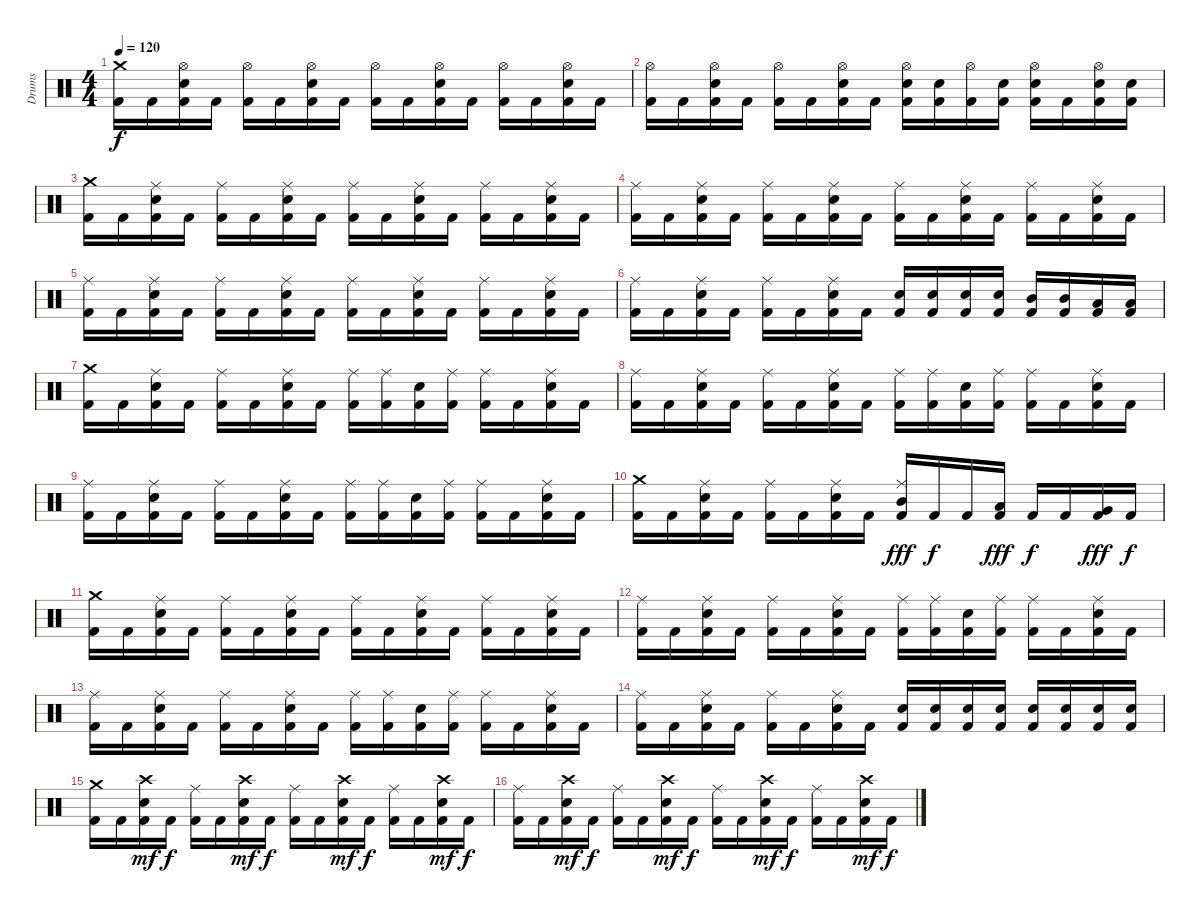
\track ("Drums" "Drums") {instrument percussion}
\staff {score}
\articulation defaults
\ts (4 4)
\tempo 120
\clef neutral
\ks c
("Kick (hit) 2" "Crash medium (hit)").16{dy f} "Kick (hit) 2".16 ("Kick (hit) 2" "Electric Snare (hit)" "Hi-Hat (open)").16 "Kick (hit) 2".16 ("Kick (hit) 2" "Hi-Hat (open)").16 "Kick (hit) 2".16 ("Kick (hit) 2" "Electric Snare (hit)" "Hi-Hat (open)").16 "Kick (hit) 2".16 ("Kick (hit) 2" "Hi-Hat (open)").16 "Kick (hit) 2".16 ("Kick (hit) 2" "Electric Snare (hit)" "Hi-Hat (open)").16 "Kick (hit) 2".16 ("Kick (hit) 2" "Hi-Hat (open)").16 "Kick (hit) 2".16 ("Kick (hit) 2" "Electric Snare (hit)" "Hi-Hat (open)").16 "Kick (hit) 2".16 |
("Kick (hit) 2" "Hi-Hat (open)").16 "Kick (hit) 2".16 ("Kick (hit) 2" "Electric Snare (hit)" "Hi-Hat (open)").16 "Kick (hit) 2".16 ("Kick (hit) 2" "Hi-Hat (open)").16 "Kick (hit) 2".16 ("Kick (hit) 2" "Electric Snare (hit)" "Hi-Hat (open)").16 "Kick (hit) 2".16 ("Kick (hit) 2" "Electric Snare (hit)" "Hi-Hat (open)").16 ("Kick (hit) 2" "Electric Snare (hit)").16 ("Kick (hit) 2" "Hi-Hat (open)").16 ("Kick (hit) 2" "Electric Snare (hit)").16 ("Kick (hit) 2" "Electric Snare (hit)" "Hi-Hat (open)").16 "Kick (hit) 2".16 ("Kick (hit) 2" "Electric Snare (hit)" "Hi-Hat (open)").16 ("Kick (hit) 2" "Electric Snare (hit)").16 |
("Kick (hit) 2" "Crash medium (hit)").16 "Kick (hit) 2".16 ("Kick (hit) 2" "Electric Snare (hit)" "Ride (middle)").16 "Kick (hit) 2".16 ("Kick (hit) 2" "Ride (middle)").16 "Kick (hit) 2".16 ("Kick (hit) 2" "Electric Snare (hit)" "Ride (middle)").16 "Kick (hit) 2".16 ("Kick (hit) 2" "Ride (middle)").16 "Kick (hit) 2".16 ("Kick (hit) 2" "Electric Snare (hit)" "Ride (middle)").16 "Kick (hit) 2".16 ("Kick (hit) 2" "Ride (middle)").16 "Kick (hit) 2".16 ("Kick (hit) 2" "Electric Snare (hit)" "Ride (middle)").16 "Kick (hit) 2".16 |
("Kick (hit) 2" "Ride (middle)").16 "Kick (hit) 2".16 ("Kick (hit) 2" "Electric Snare (hit)" "Ride (middle)").16 "Kick (hit) 2".16 ("Kick (hit) 2" "Ride (middle)").16 "Kick (hit) 2".16 ("Kick (hit) 2" "Electric Snare (hit)" "Ride (middle)").16 "Kick (hit) 2".16 ("Kick (hit) 2" "Ride (middle)").16 "Kick (hit) 2".16 ("Kick (hit) 2" "Electric Snare (hit)" "Ride (middle)").16 "Kick (hit) 2".16 ("Kick (hit) 2" "Ride (middle)").16 "Kick (hit) 2".16 ("Kick (hit) 2" "Electric Snare (hit)" "Ride (middle)").16 "Kick (hit) 2".16 |
("Kick (hit) 2" "Ride (middle)").16 "Kick (hit) 2".16 ("Kick (hit) 2" "Electric Snare (hit)" "Ride (middle)").16 "Kick (hit) 2".16 ("Kick (hit) 2" "Ride (middle)").16 "Kick (hit) 2".16 ("Kick (hit) 2" "Electric Snare (hit)" "Ride (middle)").16 "Kick (hit) 2".16 ("Kick (hit) 2" "Ride (middle)").16 "Kick (hit) 2".16 ("Kick (hit) 2" "Electric Snare (hit)" "Ride (middle)").16 "Kick (hit) 2".16 ("Kick (hit) 2" "Ride (middle)").16 "Kick (hit) 2".16 ("Kick (hit) 2" "Electric Snare (hit)" "Ride (middle)").16 "Kick (hit) 2".16 |
("Kick (hit) 2" "Ride (middle)").16 "Kick (hit) 2".16 ("Kick (hit) 2" "Electric Snare (hit)" "Ride (middle)").16 "Kick (hit) 2".16 ("Kick (hit) 2" "Ride (middle)").16 "Kick (hit) 2".16 ("Kick (hit) 2" "Electric Snare (hit)" "Ride (middle)").16 "Kick (hit) 2".16 ("Kick (hit) 2" "Electric Snare (hit)").16 ("Kick (hit) 2" "Electric Snare (hit)").16 ("Kick (hit) 2" "Electric Snare (hit)").16 ("Kick (hit) 2" "Electric Snare (hit)").16 ("Kick (hit) 2" "Mid Tom (hit)").16 ("Kick (hit) 2" "Mid Tom (hit)").16 ("Kick (hit) 2" "Low Tom (hit)").16 ("Kick (hit) 2" "Low Tom (hit)").16 |
("Kick (hit) 2" "Crash medium (hit)").16 "Kick (hit) 2".16 ("Kick (hit) 2" "Electric Snare (hit)" "Ride (middle)").16 "Kick (hit) 2".16 ("Kick (hit) 2" "Ride (middle)").16 "Kick (hit) 2".16 ("Kick (hit) 2" "Electric Snare (hit)" "Ride (middle)").16 "Kick (hit) 2".16 ("Kick (hit) 2" "Ride (middle)").16 ("Kick (hit) 2" "Ride (middle)").16 ("Kick (hit) 2" "Electric Snare (hit)").16 ("Kick (hit) 2" "Ride (middle)").16 ("Kick (hit) 2" "Ride (middle)").16 "Kick (hit) 2".16 ("Kick (hit) 2" "Electric Snare (hit)" "Ride (middle)").16 "Kick (hit) 2".16 |
("Kick (hit) 2" "Ride (middle)").16 "Kick (hit) 2".16 ("Kick (hit) 2" "Electric Snare (hit)" "Ride (middle)").16 "Kick (hit) 2".16 ("Kick (hit) 2" "Ride (middle)").16 "Kick (hit) 2".16 ("Kick (hit) 2" "Electric Snare (hit)" "Ride (middle)").16 "Kick (hit) 2".16 ("Kick (hit) 2" "Ride (middle)").16 ("Kick (hit) 2" "Ride (middle)").16 ("Kick (hit) 2" "Electric Snare (hit)").16 ("Kick (hit) 2" "Ride (middle)").16 ("Kick (hit) 2" "Ride (middle)").16 "Kick (hit) 2".16 ("Kick (hit) 2" "Electric Snare (hit)" "Ride (middle)").16 "Kick (hit) 2".16 |
("Kick (hit) 2" "Ride (middle)").16 "Kick (hit) 2".16 ("Kick (hit) 2" "Electric Snare (hit)" "Ride (middle)").16 "Kick (hit) 2".16 ("Kick (hit) 2" "Ride (middle)").16 "Kick (hit) 2".16 ("Kick (hit) 2" "Electric Snare (hit)" "Ride (middle)").16 "Kick (hit) 2".16 ("Kick (hit) 2" "Ride (middle)").16 ("Kick (hit) 2" "Ride (middle)").16 ("Kick (hit) 2" "Electric Snare (hit)").16 ("Kick (hit) 2" "Ride (middle)").16 ("Kick (hit) 2" "Ride (middle)").16 "Kick (hit) 2".16 ("Kick (hit) 2" "Electric Snare (hit)" "Ride (middle)").16 "Kick (hit) 2".16 |
("Kick (hit) 2" "Crash medium (hit)").16 "Kick (hit) 2".16 ("Kick (hit) 2" "Electric Snare (hit)" "Ride (middle)").16 "Kick (hit) 2".16 ("Kick (hit) 2" "Ride (middle)").16 "Kick (hit) 2".16 ("Kick (hit) 2" "Electric Snare (hit)" "Ride (middle)").16 "Kick (hit) 2".16 ("Kick (hit) 2" "Mid Tom (hit)" "Ride (middle)").16{dy fff} "Kick (hit) 2".16{dy f} "Kick (hit) 2".16 ("Kick (hit) 2" "Low Tom (hit)").16{dy fff} "Kick (hit) 2".16{dy f} "Kick (hit) 2".16 ("Kick (hit) 2" "Very Low Tom (hit)").16{dy fff} "Kick (hit) 2".16{dy f} |
("Kick (hit) 2" "Crash medium (hit)").16 "Kick (hit) 2".16 ("Kick (hit) 2" "Electric Snare (hit)" "Ride (middle)").16 "Kick (hit) 2".16 ("Kick (hit) 2" "Ride (middle)").16 "Kick (hit) 2".16 ("Kick (hit) 2" "Electric Snare (hit)" "Ride (middle)").16 "Kick (hit) 2".16 ("Kick (hit) 2" "Ride (middle)").16 "Kick (hit) 2".16 ("Kick (hit) 2" "Electric Snare (hit)" "Ride (middle)").16 "Kick (hit) 2".16 ("Kick (hit) 2" "Ride (middle)").16 "Kick (hit) 2".16 ("Kick (hit) 2" "Electric Snare (hit)" "Ride (middle)").16 "Kick (hit) 2".16 |
("Kick (hit) 2" "Ride (middle)").16 "Kick (hit) 2".16 ("Kick (hit) 2" "Electric Snare (hit)" "Ride (middle)").16 "Kick (hit) 2".16 ("Kick (hit) 2" "Ride (middle)").16 "Kick (hit) 2".16 ("Kick (hit) 2" "Electric Snare (hit)" "Ride (middle)").16 "Kick (hit) 2".16 ("Kick (hit) 2" "Ride (middle)").16 ("Kick (hit) 2" "Ride (middle)").16 ("Kick (hit) 2" "Electric Snare (hit)").16 ("Kick (hit) 2" "Ride (middle)").16 ("Kick (hit) 2" "Ride (middle)").16 "Kick (hit) 2".16 ("Kick (hit) 2" "Electric Snare (hit)" "Ride (middle)").16 "Kick (hit) 2".16 |
("Kick (hit) 2" "Ride (middle)").16 "Kick (hit) 2".16 ("Kick (hit) 2" "Electric Snare (hit)" "Ride (middle)").16 "Kick (hit) 2".16 ("Kick (hit) 2" "Ride (middle)").16 "Kick (hit) 2".16 ("Kick (hit) 2" "Electric Snare (hit)" "Ride (middle)").16 "Kick (hit) 2".16 ("Kick (hit) 2" "Ride (middle)").16 ("Kick (hit) 2" "Ride (middle)").16 ("Kick (hit) 2" "Electric Snare (hit)").16 ("Kick (hit) 2" "Ride (middle)").16 ("Kick (hit) 2" "Ride (middle)").16 "Kick (hit) 2".16 ("Kick (hit) 2" "Electric Snare (hit)" "Ride (middle)").16 "Kick (hit) 2".16 |
("Kick (hit) 2" "Ride (middle)").16 "Kick (hit) 2".16 ("Kick (hit) 2" "Electric Snare (hit)" "Ride (middle)").16 "Kick (hit) 2".16 ("Kick (hit) 2" "Ride (middle)").16 "Kick (hit) 2".16 ("Kick (hit) 2" "Electric Snare (hit)" "Ride (middle)").16 "Kick (hit) 2".16 ("Kick (hit) 2" "Electric Snare (hit)").16 ("Kick (hit) 2" "Electric Snare (hit)").16 ("Kick (hit) 2" "Electric Snare (hit)").16 ("Kick (hit) 2" "Electric Snare (hit)").16 ("Kick (hit) 2" "Electric Snare (hit)").16 ("Kick (hit) 2" "Electric Snare (hit)").16 ("Kick (hit) 2" "Electric Snare (hit)").16 ("Kick (hit) 2" "Electric Snare (hit)").16 |
("Kick (hit) 2" "Crash medium (hit)").16 "Kick (hit) 2".16 ("Kick (hit) 2" "Electric Snare (hit)" "Crash high (hit)").16{dy mf} "Kick (hit) 2".16{dy f} ("Kick (hit) 2" "Ride (middle)").16 "Kick (hit) 2".16 ("Kick (hit) 2" "Electric Snare (hit)" "Crash high (hit)").16{dy mf} "Kick (hit) 2".16{dy f} ("Kick (hit) 2" "Ride (middle)").16 "Kick (hit) 2".16 ("Kick (hit) 2" "Electric Snare (hit)" "Crash high (hit)").16{dy mf} "Kick (hit) 2".16{dy f} ("Kick (hit) 2" "Ride (middle)").16 "Kick (hit) 2".16 ("Kick (hit) 2" "Electric Snare (hit)" "Crash high (hit)").16{dy mf} "Kick (hit) 2".16{dy f} |
("Kick (hit) 2" "Ride (middle)").16 "Kick (hit) 2".16 ("Kick (hit) 2" "Electric Snare (hit)" "Crash high (hit)").16{dy mf} "Kick (hit) 2".16{dy f} ("Kick (hit) 2" "Ride (middle)").16 "Kick (hit) 2".16 ("Kick (hit) 2" "Electric Snare (hit)" "Crash high (hit)").16{dy mf} "Kick (hit) 2".16{dy f} ("Kick (hit) 2" "Ride (middle)").16 "Kick (hit) 2".16 ("Kick (hit) 2" "Electric Snare (hit)" "Crash high (hit)").16{dy mf} "Kick (hit) 2".16{dy f} ("Kick (hit) 2" "Ride (middle)").16 "Kick (hit) 2".16 ("Kick (hit) 2" "Electric Snare (hit)" "Crash high (hit)").16{dy mf} "Kick (hit) 2".16{dy f}
